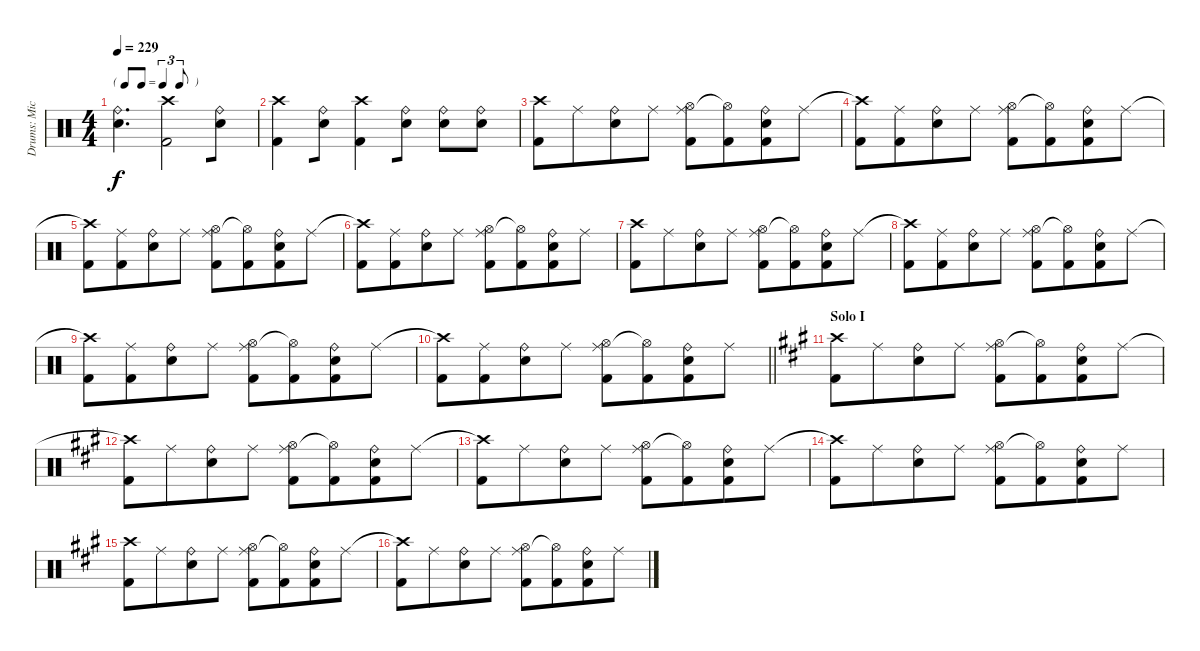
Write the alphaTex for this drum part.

\track ("Drums: Mick" "Drums: Mic") {instrument percussion}
\staff {score}
\articulation defaults
\ts (4 4)
\tf triplet8th
\tempo 229
\clef neutral
\ks c
("Ride (bell)" "Snare (hit) 2").4{d dy f} ("Crash high (hit)" "Kick (hit) 2").2{beam merge} ("Ride (bell)" "Snare (hit) 2").8 |
("Crash high (hit)" "Kick (hit) 2").4{beam merge} ("Ride (bell)" "Snare (hit) 2").8 ("Crash high (hit)" "Kick (hit) 2").4{beam merge} ("Ride (bell)" "Snare (hit) 2").8 ("Ride (bell)" "Snare (hit) 2").8 ("Ride (bell)" "Snare (hit) 2").8 |
("Crash high (hit)" "Kick (hit) 2").8 "Ride (middle)".8{beam merge} ("Ride (bell)" "Snare (hit) 2").8 "Ride (middle)".8 ("Ride (middle)" "Hi-Hat (open)" "Kick (hit) 2").8 ("Hi-Hat (open)"{t} "Kick (hit) 2").8{beam merge} ("Ride (bell)" "Snare (hit) 2" "Kick (hit) 2").8 "Ride (middle)".8 |
("Crash high (hit)"{t} "Kick (hit) 2").8 ("Ride (middle)" "Kick (hit) 2").8{beam merge} ("Ride (bell)" "Snare (hit) 2").8 "Ride (middle)".8 ("Ride (middle)" "Hi-Hat (open)" "Kick (hit) 2").8 ("Hi-Hat (open)"{t} "Kick (hit) 2").8{beam merge} ("Ride (bell)" "Snare (hit) 2" "Kick (hit) 2").8 "Ride (middle)".8 |
("Crash high (hit)"{t} "Kick (hit) 2").8 ("Ride (middle)" "Kick (hit) 2").8{beam merge} ("Ride (bell)" "Snare (hit) 2").8 "Ride (middle)".8 ("Ride (middle)" "Hi-Hat (open)" "Kick (hit) 2").8 ("Hi-Hat (open)"{t} "Kick (hit) 2").8{beam merge} ("Ride (bell)" "Snare (hit) 2" "Kick (hit) 2").8 "Ride (middle)".8 |
("Crash high (hit)"{t} "Kick (hit) 2").8 ("Ride (middle)" "Kick (hit) 2").8{beam merge} ("Ride (bell)" "Snare (hit) 2").8 "Ride (middle)".8 ("Ride (middle)" "Hi-Hat (open)" "Kick (hit) 2").8 ("Hi-Hat (open)"{t} "Kick (hit) 2").8{beam merge} ("Ride (bell)" "Snare (hit) 2" "Kick (hit) 2").8 "Ride (middle)".8 |
("Crash high (hit)" "Kick (hit) 2").8 "Ride (middle)".8{beam merge} ("Ride (bell)" "Snare (hit) 2").8 "Ride (middle)".8 ("Ride (middle)" "Hi-Hat (open)" "Kick (hit) 2").8 ("Hi-Hat (open)"{t} "Kick (hit) 2").8{beam merge} ("Ride (bell)" "Snare (hit) 2" "Kick (hit) 2").8 "Ride (middle)".8 |
("Crash high (hit)"{t} "Kick (hit) 2").8 ("Ride (middle)" "Kick (hit) 2").8{beam merge} ("Ride (bell)" "Snare (hit) 2").8 "Ride (middle)".8 ("Ride (middle)" "Hi-Hat (open)" "Kick (hit) 2").8 ("Hi-Hat (open)"{t} "Kick (hit) 2").8{beam merge} ("Ride (bell)" "Snare (hit) 2" "Kick (hit) 2").8 "Ride (middle)".8 |
("Crash high (hit)"{t} "Kick (hit) 2").8 ("Ride (middle)" "Kick (hit) 2").8{beam merge} ("Ride (bell)" "Snare (hit) 2").8 "Ride (middle)".8 ("Ride (middle)" "Hi-Hat (open)" "Kick (hit) 2").8 ("Hi-Hat (open)"{t} "Kick (hit) 2").8{beam merge} ("Ride (bell)" "Snare (hit) 2" "Kick (hit) 2").8 "Ride (middle)".8 |
\barLineRight lightlight
("Crash high (hit)"{t} "Kick (hit) 2").8 ("Ride (middle)" "Kick (hit) 2").8{beam merge} ("Ride (bell)" "Snare (hit) 2").8 "Ride (middle)".8 ("Ride (middle)" "Hi-Hat (open)" "Kick (hit) 2").8 ("Hi-Hat (open)"{t} "Kick (hit) 2").8{beam merge} ("Ride (bell)" "Snare (hit) 2" "Kick (hit) 2").8 "Ride (middle)".8 |
\section ("" "Solo I")
\ks a
("Crash high (hit)" "Kick (hit) 2").8 "Ride (middle)".8{beam merge} ("Ride (bell)" "Snare (hit) 2").8 "Ride (middle)".8 ("Ride (middle)" "Hi-Hat (open)" "Kick (hit) 2").8 ("Hi-Hat (open)"{t} "Kick (hit) 2").8{beam merge} ("Ride (bell)" "Snare (hit) 2" "Kick (hit) 2").8 "Ride (middle)".8 |
("Crash high (hit)"{t} "Kick (hit) 2").8 "Ride (middle)".8{beam merge} ("Ride (bell)" "Snare (hit) 2").8 "Ride (middle)".8 ("Ride (middle)" "Hi-Hat (open)" "Kick (hit) 2").8 ("Hi-Hat (open)"{t} "Kick (hit) 2").8{beam merge} ("Ride (bell)" "Snare (hit) 2" "Kick (hit) 2").8 "Ride (middle)".8 |
("Crash high (hit)"{t} "Kick (hit) 2").8 "Ride (middle)".8{beam merge} ("Ride (bell)" "Snare (hit) 2").8 "Ride (middle)".8 ("Ride (middle)" "Hi-Hat (open)" "Kick (hit) 2").8 ("Hi-Hat (open)"{t} "Kick (hit) 2").8{beam merge} ("Ride (bell)" "Snare (hit) 2" "Kick (hit) 2").8 "Ride (middle)".8 |
("Crash high (hit)"{t} "Kick (hit) 2").8 "Ride (middle)".8{beam merge} ("Ride (bell)" "Snare (hit) 2").8 "Ride (middle)".8 ("Ride (middle)" "Hi-Hat (open)" "Kick (hit) 2").8 ("Hi-Hat (open)"{t} "Kick (hit) 2").8{beam merge} ("Ride (bell)" "Snare (hit) 2" "Kick (hit) 2").8 "Ride (middle)".8 |
("Crash high (hit)" "Kick (hit) 2").8 "Ride (middle)".8{beam merge} ("Ride (bell)" "Snare (hit) 2").8 "Ride (middle)".8 ("Ride (middle)" "Hi-Hat (open)" "Kick (hit) 2").8 ("Hi-Hat (open)"{t} "Kick (hit) 2").8{beam merge} ("Ride (bell)" "Snare (hit) 2" "Kick (hit) 2").8 "Ride (middle)".8 |
("Crash high (hit)"{t} "Kick (hit) 2").8 "Ride (middle)".8{beam merge} ("Ride (bell)" "Snare (hit) 2").8 "Ride (middle)".8 ("Ride (middle)" "Hi-Hat (open)" "Kick (hit) 2").8 ("Hi-Hat (open)"{t} "Kick (hit) 2").8{beam merge} ("Ride (bell)" "Snare (hit) 2" "Kick (hit) 2").8 "Ride (middle)".8
